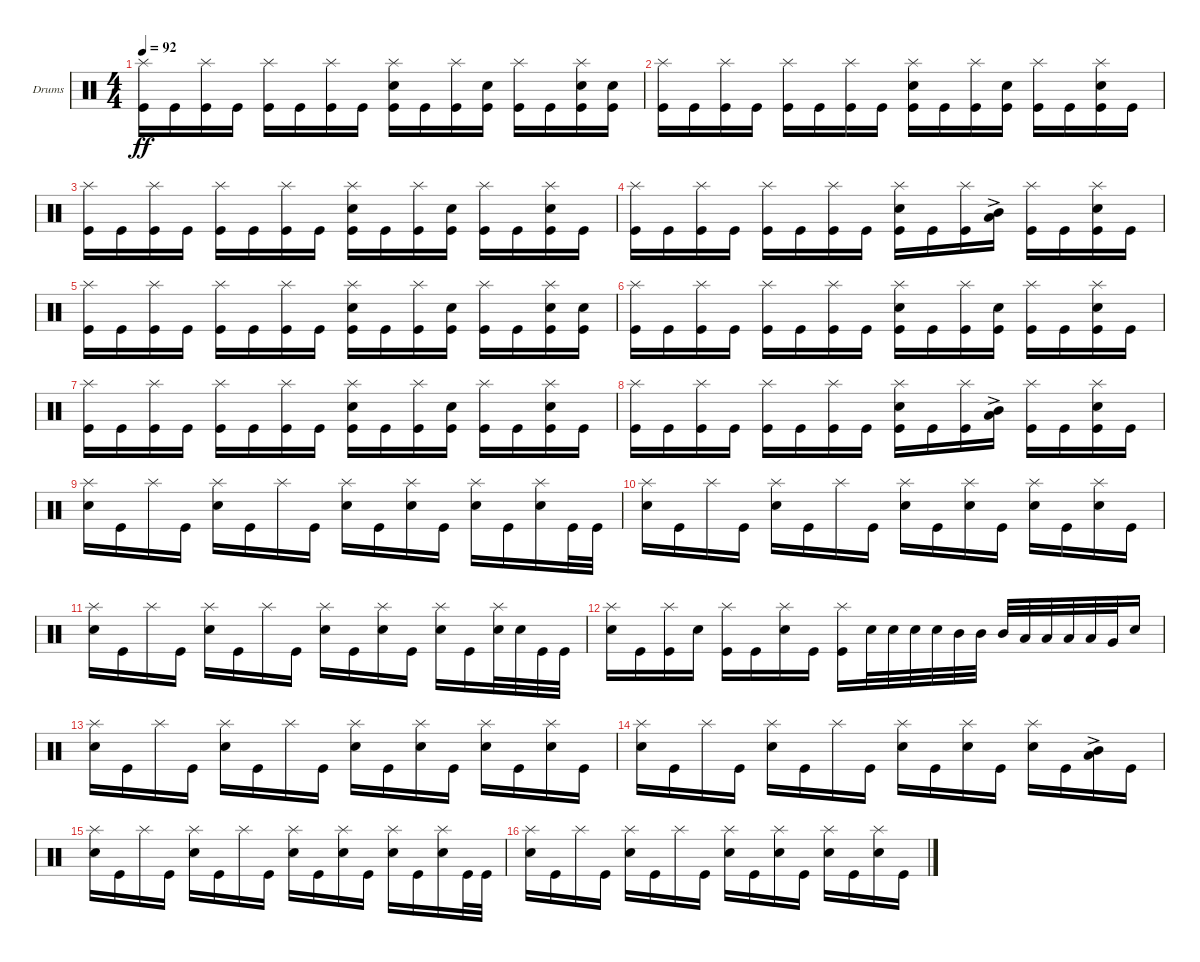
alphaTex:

\defaultSystemsLayout 4
\bracketExtendMode groupsimilarinstruments
\firstSystemTrackNameOrientation horizontal
\otherSystemsTrackNameOrientation horizontal
\track ("Drumkit" "Drums") {instrument percussion}
\staff {score}
\articulation defaults
\ts (4 4)
\tempo 92
\clef neutral
\ks c
("Kick (hit)" "Splash (hit)").16{dy ff} "Kick (hit)".16 ("Kick (hit)" "Splash (hit)").16 "Kick (hit)".16 ("Kick (hit)" "Splash (hit)").16 "Kick (hit)".16 ("Kick (hit)" "Splash (hit)").16 "Kick (hit)".16 ("Kick (hit)" "Snare (hit) 2" "Splash (hit)").16 "Kick (hit)".16 ("Kick (hit)" "Splash (hit)").16 ("Kick (hit)" "Snare (hit) 2").16 ("Kick (hit)" "Splash (hit)").16 "Kick (hit)".16 ("Kick (hit)" "Snare (hit) 2" "Splash (hit)").16 ("Kick (hit)" "Snare (hit) 2").16 |
("Kick (hit)" "Splash (hit)").16 "Kick (hit)".16 ("Kick (hit)" "Splash (hit)").16 "Kick (hit)".16 ("Kick (hit)" "Splash (hit)").16 "Kick (hit)".16 ("Kick (hit)" "Splash (hit)").16 "Kick (hit)".16 ("Kick (hit)" "Snare (hit) 2" "Splash (hit)").16 "Kick (hit)".16 ("Kick (hit)" "Splash (hit)").16 ("Kick (hit)" "Snare (hit) 2").16 ("Kick (hit)" "Splash (hit)").16 "Kick (hit)".16 ("Kick (hit)" "Snare (hit) 2" "Splash (hit)").16 "Kick (hit)".16 |
("Kick (hit)" "Splash (hit)").16 "Kick (hit)".16 ("Kick (hit)" "Splash (hit)").16 "Kick (hit)".16 ("Kick (hit)" "Splash (hit)").16 "Kick (hit)".16 ("Kick (hit)" "Splash (hit)").16 "Kick (hit)".16 ("Kick (hit)" "Snare (hit) 2" "Splash (hit)").16 "Kick (hit)".16 ("Kick (hit)" "Splash (hit)").16 ("Kick (hit)" "Snare (hit) 2").16 ("Kick (hit)" "Splash (hit)").16 "Kick (hit)".16 ("Kick (hit)" "Snare (hit) 2" "Splash (hit)").16 "Kick (hit)".16 |
("Kick (hit)" "Splash (hit)").16 "Kick (hit)".16 ("Kick (hit)" "Splash (hit)").16 "Kick (hit)".16 ("Kick (hit)" "Splash (hit)").16 "Kick (hit)".16 ("Kick (hit)" "Splash (hit)").16 "Kick (hit)".16 ("Kick (hit)" "Snare (hit) 2" "Splash (hit)").16 "Kick (hit)".16 ("Kick (hit)" "Splash (hit)").16 ("Mid Tom (hit)"{ac} "Low Tom (hit)"{ac}).16 ("Kick (hit)" "Splash (hit)").16 "Kick (hit)".16 ("Kick (hit)" "Snare (hit) 2" "Splash (hit)").16 "Kick (hit)".16 |
("Kick (hit)" "Splash (hit)").16 "Kick (hit)".16 ("Kick (hit)" "Splash (hit)").16 "Kick (hit)".16 ("Kick (hit)" "Splash (hit)").16 "Kick (hit)".16 ("Kick (hit)" "Splash (hit)").16 "Kick (hit)".16 ("Kick (hit)" "Snare (hit) 2" "Splash (hit)").16 "Kick (hit)".16 ("Kick (hit)" "Splash (hit)").16 ("Kick (hit)" "Snare (hit) 2").16 ("Kick (hit)" "Splash (hit)").16 "Kick (hit)".16 ("Kick (hit)" "Snare (hit) 2" "Splash (hit)").16 ("Kick (hit)" "Snare (hit) 2").16 |
("Kick (hit)" "Splash (hit)").16 "Kick (hit)".16 ("Kick (hit)" "Splash (hit)").16 "Kick (hit)".16 ("Kick (hit)" "Splash (hit)").16 "Kick (hit)".16 ("Kick (hit)" "Splash (hit)").16 "Kick (hit)".16 ("Kick (hit)" "Snare (hit) 2" "Splash (hit)").16 "Kick (hit)".16 ("Kick (hit)" "Splash (hit)").16 ("Kick (hit)" "Snare (hit) 2").16 ("Kick (hit)" "Splash (hit)").16 "Kick (hit)".16 ("Kick (hit)" "Snare (hit) 2" "Splash (hit)").16 "Kick (hit)".16 |
("Kick (hit)" "Splash (hit)").16 "Kick (hit)".16 ("Kick (hit)" "Splash (hit)").16 "Kick (hit)".16 ("Kick (hit)" "Splash (hit)").16 "Kick (hit)".16 ("Kick (hit)" "Splash (hit)").16 "Kick (hit)".16 ("Kick (hit)" "Snare (hit) 2" "Splash (hit)").16 "Kick (hit)".16 ("Kick (hit)" "Splash (hit)").16 ("Kick (hit)" "Snare (hit) 2").16 ("Kick (hit)" "Splash (hit)").16 "Kick (hit)".16 ("Kick (hit)" "Snare (hit) 2" "Splash (hit)").16 "Kick (hit)".16 |
("Kick (hit)" "Splash (hit)").16 "Kick (hit)".16 ("Kick (hit)" "Splash (hit)").16 "Kick (hit)".16 ("Kick (hit)" "Splash (hit)").16 "Kick (hit)".16 ("Kick (hit)" "Splash (hit)").16 "Kick (hit)".16 ("Kick (hit)" "Snare (hit) 2" "Splash (hit)").16 "Kick (hit)".16 ("Kick (hit)" "Splash (hit)").16 ("Mid Tom (hit)"{ac} "Low Tom (hit)"{ac}).16 ("Kick (hit)" "Splash (hit)").16 "Kick (hit)".16 ("Kick (hit)" "Snare (hit) 2" "Splash (hit)").16 "Kick (hit)".16 |
("Snare (hit) 2" "Splash (hit)").16 "Kick (hit)".16 "Splash (hit)".16 "Kick (hit)".16 ("Snare (hit) 2" "Splash (hit)").16 "Kick (hit)".16 "Splash (hit)".16 "Kick (hit)".16 ("Snare (hit) 2" "Splash (hit)").16 "Kick (hit)".16 ("Snare (hit) 2" "Splash (hit)").16 "Kick (hit)".16 ("Snare (hit) 2" "Splash (hit)").16 "Kick (hit)".16 ("Snare (hit) 2" "Splash (hit)").16 "Kick (hit)".32 "Kick (hit)".32 |
("Snare (hit) 2" "Splash (hit)").16 "Kick (hit)".16 "Splash (hit)".16 "Kick (hit)".16 ("Snare (hit) 2" "Splash (hit)").16 "Kick (hit)".16 "Splash (hit)".16 "Kick (hit)".16 ("Snare (hit) 2" "Splash (hit)").16 "Kick (hit)".16 ("Snare (hit) 2" "Splash (hit)").16 "Kick (hit)".16 ("Snare (hit) 2" "Splash (hit)").16 "Kick (hit)".16 ("Snare (hit) 2" "Splash (hit)").16 "Kick (hit)".16 |
("Snare (hit) 2" "Splash (hit)").16 "Kick (hit)".16 "Splash (hit)".16 "Kick (hit)".16 ("Snare (hit) 2" "Splash (hit)").16 "Kick (hit)".16 "Splash (hit)".16 "Kick (hit)".16 ("Snare (hit) 2" "Splash (hit)").16 "Kick (hit)".16 ("Snare (hit) 2" "Splash (hit)").16 "Kick (hit)".16 ("Snare (hit) 2" "Splash (hit)").16 "Kick (hit)".16 ("Snare (hit) 2" "Splash (hit)").32 "Snare (hit) 2".32 "Kick (hit)".32 "Kick (hit)".32 |
("Snare (hit) 2" "Splash (hit)").16 "Kick (hit)".16 ("Kick (hit)" "Splash (hit)").16 "Snare (hit) 2".16 ("Kick (hit)" "Splash (hit)").16 "Kick (hit)".16 ("Snare (hit) 2" "Splash (hit)").16 "Kick (hit)".16 ("Kick (hit)" "Splash (hit)").16 "Snare (hit) 2".32 "Snare (hit) 2".32 "Snare (hit) 2".32 "Snare (hit) 2".32 "Mid Tom (hit)".32 "Mid Tom (hit)".32 "Mid Tom (hit)".32 "Low Tom (hit)".32 "Low Tom (hit)".32 "Low Tom (hit)".32 "Low Tom (hit)".32 "Very Low Tom (hit)".32 "Snare (hit) 2".16 |
("Snare (hit) 2" "Splash (hit)").16 "Kick (hit)".16 "Splash (hit)".16 "Kick (hit)".16 ("Snare (hit) 2" "Splash (hit)").16 "Kick (hit)".16 "Splash (hit)".16 "Kick (hit)".16 ("Snare (hit) 2" "Splash (hit)").16 "Kick (hit)".16 ("Snare (hit) 2" "Splash (hit)").16 "Kick (hit)".16 ("Snare (hit) 2" "Splash (hit)").16 "Kick (hit)".16 ("Snare (hit) 2" "Splash (hit)").16 "Kick (hit)".16 |
("Snare (hit) 2" "Splash (hit)").16 "Kick (hit)".16 "Splash (hit)".16 "Kick (hit)".16 ("Snare (hit) 2" "Splash (hit)").16 "Kick (hit)".16 "Splash (hit)".16 "Kick (hit)".16 ("Snare (hit) 2" "Splash (hit)").16 "Kick (hit)".16 ("Snare (hit) 2" "Splash (hit)").16 "Kick (hit)".16 ("Snare (hit) 2" "Splash (hit)").16 "Kick (hit)".16 ("Low Tom (hit)"{ac} "Mid Tom (hit)"{ac}).16 "Kick (hit)".16 |
("Snare (hit) 2" "Splash (hit)").16 "Kick (hit)".16 "Splash (hit)".16 "Kick (hit)".16 ("Snare (hit) 2" "Splash (hit)").16 "Kick (hit)".16 "Splash (hit)".16 "Kick (hit)".16 ("Snare (hit) 2" "Splash (hit)").16 "Kick (hit)".16 ("Snare (hit) 2" "Splash (hit)").16 "Kick (hit)".16 ("Snare (hit) 2" "Splash (hit)").16 "Kick (hit)".16 ("Snare (hit) 2" "Splash (hit)").16 "Kick (hit)".32 "Kick (hit)".32 |
("Snare (hit) 2" "Splash (hit)").16 "Kick (hit)".16 "Splash (hit)".16 "Kick (hit)".16 ("Snare (hit) 2" "Splash (hit)").16 "Kick (hit)".16 "Splash (hit)".16 "Kick (hit)".16 ("Snare (hit) 2" "Splash (hit)").16 "Kick (hit)".16 ("Snare (hit) 2" "Splash (hit)").16 "Kick (hit)".16 ("Snare (hit) 2" "Splash (hit)").16 "Kick (hit)".16 ("Snare (hit) 2" "Splash (hit)").16 "Kick (hit)".16
